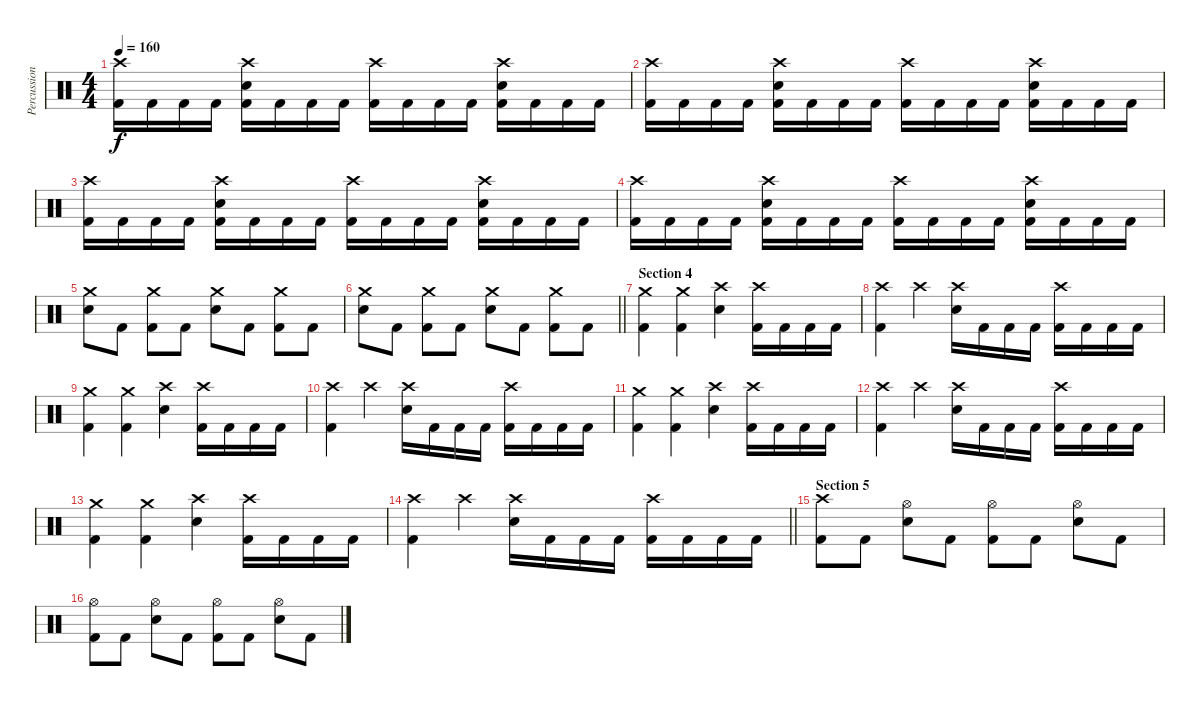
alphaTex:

\track ("Percussion" "Percussion") {instrument percussion}
\staff {score}
\articulation defaults
\ts (4 4)
\tempo 160
\clef neutral
\ks c
("Crash high (hit)" "Kick (hit) 2").16{dy f} "Kick (hit) 2".16 "Kick (hit) 2".16 "Kick (hit) 2".16 ("Crash high (hit)" "Electric Snare (hit)" "Kick (hit) 2").16 "Kick (hit) 2".16 "Kick (hit) 2".16 "Kick (hit) 2".16 ("Crash high (hit)" "Kick (hit) 2").16 "Kick (hit) 2".16 "Kick (hit) 2".16 "Kick (hit) 2".16 ("Crash high (hit)" "Electric Snare (hit)" "Kick (hit) 2").16 "Kick (hit) 2".16 "Kick (hit) 2".16 "Kick (hit) 2".16 |
("Crash high (hit)" "Kick (hit) 2").16 "Kick (hit) 2".16 "Kick (hit) 2".16 "Kick (hit) 2".16 ("Crash high (hit)" "Electric Snare (hit)" "Kick (hit) 2").16 "Kick (hit) 2".16 "Kick (hit) 2".16 "Kick (hit) 2".16 ("Crash high (hit)" "Kick (hit) 2").16 "Kick (hit) 2".16 "Kick (hit) 2".16 "Kick (hit) 2".16 ("Crash high (hit)" "Electric Snare (hit)" "Kick (hit) 2").16 "Kick (hit) 2".16 "Kick (hit) 2".16 "Kick (hit) 2".16 |
("Crash high (hit)" "Kick (hit) 2").16 "Kick (hit) 2".16 "Kick (hit) 2".16 "Kick (hit) 2".16 ("Crash high (hit)" "Electric Snare (hit)" "Kick (hit) 2").16 "Kick (hit) 2".16 "Kick (hit) 2".16 "Kick (hit) 2".16 ("Crash high (hit)" "Kick (hit) 2").16 "Kick (hit) 2".16 "Kick (hit) 2".16 "Kick (hit) 2".16 ("Crash high (hit)" "Electric Snare (hit)" "Kick (hit) 2").16 "Kick (hit) 2".16 "Kick (hit) 2".16 "Kick (hit) 2".16 |
("Crash high (hit)" "Kick (hit) 2").16 "Kick (hit) 2".16 "Kick (hit) 2".16 "Kick (hit) 2".16 ("Crash high (hit)" "Electric Snare (hit)" "Kick (hit) 2").16 "Kick (hit) 2".16 "Kick (hit) 2".16 "Kick (hit) 2".16 ("Crash high (hit)" "Kick (hit) 2").16 "Kick (hit) 2".16 "Kick (hit) 2".16 "Kick (hit) 2".16 ("Crash high (hit)" "Electric Snare (hit)" "Kick (hit) 2").16 "Kick (hit) 2".16 "Kick (hit) 2".16 "Kick (hit) 2".16 |
("Crash medium (hit)" "Electric Snare (hit)").8 "Kick (hit) 2".8 ("Crash medium (hit)" "Kick (hit) 2").8 "Kick (hit) 2".8 ("Crash medium (hit)" "Electric Snare (hit)").8 "Kick (hit) 2".8 ("Crash medium (hit)" "Kick (hit) 2").8 "Kick (hit) 2".8 |
\barLineRight lightlight
("Crash medium (hit)" "Electric Snare (hit)").8 "Kick (hit) 2".8 ("Crash medium (hit)" "Kick (hit) 2").8 "Kick (hit) 2".8 ("Crash medium (hit)" "Electric Snare (hit)").8 "Kick (hit) 2".8 ("Crash medium (hit)" "Kick (hit) 2").8 "Kick (hit) 2".8 |
\section ("" "Section 4")
("Crash medium (hit)" "Kick (hit) 2").4 ("Crash medium (hit)" "Kick (hit) 2").4 ("Crash high (hit)" "Electric Snare (hit)").4 ("Crash high (hit)" "Kick (hit) 2").16 "Kick (hit) 2".16 "Kick (hit) 2".16 "Kick (hit) 2".16 |
("Crash high (hit)" "Kick (hit) 2").4 "Crash high (hit)".4 ("Crash high (hit)" "Electric Snare (hit)").16 "Kick (hit) 2".16 "Kick (hit) 2".16 "Kick (hit) 2".16 ("Crash high (hit)" "Kick (hit) 2").16 "Kick (hit) 2".16 "Kick (hit) 2".16 "Kick (hit) 2".16 |
("Crash medium (hit)" "Kick (hit) 2").4 ("Crash medium (hit)" "Kick (hit) 2").4 ("Crash high (hit)" "Electric Snare (hit)").4 ("Crash high (hit)" "Kick (hit) 2").16 "Kick (hit) 2".16 "Kick (hit) 2".16 "Kick (hit) 2".16 |
("Crash high (hit)" "Kick (hit) 2").4 "Crash high (hit)".4 ("Crash high (hit)" "Electric Snare (hit)").16 "Kick (hit) 2".16 "Kick (hit) 2".16 "Kick (hit) 2".16 ("Crash high (hit)" "Kick (hit) 2").16 "Kick (hit) 2".16 "Kick (hit) 2".16 "Kick (hit) 2".16 |
("Crash medium (hit)" "Kick (hit) 2").4 ("Crash medium (hit)" "Kick (hit) 2").4 ("Crash high (hit)" "Electric Snare (hit)").4 ("Crash high (hit)" "Kick (hit) 2").16 "Kick (hit) 2".16 "Kick (hit) 2".16 "Kick (hit) 2".16 |
("Crash high (hit)" "Kick (hit) 2").4 "Crash high (hit)".4 ("Crash high (hit)" "Electric Snare (hit)").16 "Kick (hit) 2".16 "Kick (hit) 2".16 "Kick (hit) 2".16 ("Crash high (hit)" "Kick (hit) 2").16 "Kick (hit) 2".16 "Kick (hit) 2".16 "Kick (hit) 2".16 |
("Crash medium (hit)" "Kick (hit) 2").4 ("Crash medium (hit)" "Kick (hit) 2").4 ("Crash high (hit)" "Electric Snare (hit)").4 ("Crash high (hit)" "Kick (hit) 2").16 "Kick (hit) 2".16 "Kick (hit) 2".16 "Kick (hit) 2".16 |
\barLineRight lightlight
("Crash high (hit)" "Kick (hit) 2").4 "Crash high (hit)".4 ("Crash high (hit)" "Electric Snare (hit)").16 "Kick (hit) 2".16 "Kick (hit) 2".16 "Kick (hit) 2".16 ("Crash high (hit)" "Kick (hit) 2").16 "Kick (hit) 2".16 "Kick (hit) 2".16 "Kick (hit) 2".16 |
\section ("" "Section 5")
("Crash high (hit)" "Kick (hit) 2").8 "Kick (hit) 2".8 ("Hi-Hat (open)" "Electric Snare (hit)").8 "Kick (hit) 2".8 ("Hi-Hat (open)" "Kick (hit) 2").8 "Kick (hit) 2".8 ("Hi-Hat (open)" "Electric Snare (hit)").8 "Kick (hit) 2".8 |
("Hi-Hat (open)" "Kick (hit) 2").8 "Kick (hit) 2".8 ("Hi-Hat (open)" "Electric Snare (hit)").8 "Kick (hit) 2".8 ("Hi-Hat (open)" "Kick (hit) 2").8 "Kick (hit) 2".8 ("Hi-Hat (open)" "Electric Snare (hit)").8 "Kick (hit) 2".8
